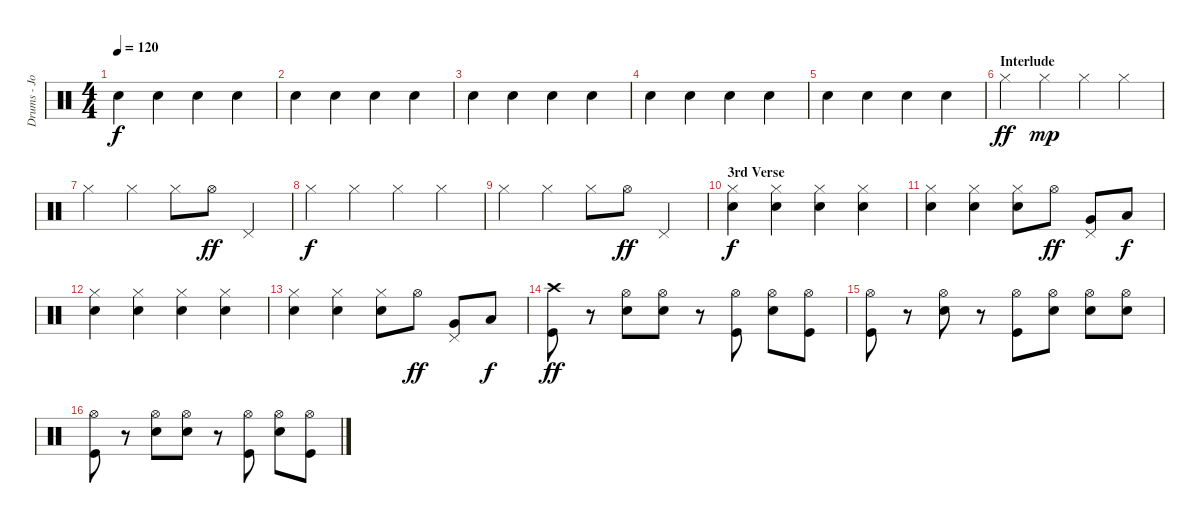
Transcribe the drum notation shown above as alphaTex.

\track ("Drums - Josh Klinghoffer" "Drums - Jo") {instrument percussion}
\staff {score}
\articulation defaults
\ts (4 4)
\tempo 120
\clef neutral
\ks c "Snare (hit) 2".4{dy f} "Snare (hit) 2".4 "Snare (hit) 2".4 "Snare (hit) 2".4
|
"Snare (hit) 2".4 "Snare (hit) 2".4 "Snare (hit) 2".4 "Snare (hit) 2".4 |
"Snare (hit) 2".4 "Snare (hit) 2".4 "Snare (hit) 2".4 "Snare (hit) 2".4 |
"Snare (hit) 2".4 "Snare (hit) 2".4 "Snare (hit) 2".4 "Snare (hit) 2".4 |
"Snare (hit) 2".4 "Snare (hit) 2".4 "Snare (hit) 2".4 "Snare (hit) 2".4 |
\section ("" "Interlude")
"Hi-Hat (closed)".4{dy ff} "Hi-Hat (closed)".4{dy mp} "Hi-Hat (closed)".4 "Hi-Hat (closed)".4 |
"Hi-Hat (closed)".4 "Hi-Hat (closed)".4 "Hi-Hat (closed)".8 "Hi-Hat (open)".8{dy ff} "Pedal Hi-Hat (hit)".4 |
"Hi-Hat (closed)".4{dy f} "Hi-Hat (closed)".4 "Hi-Hat (closed)".4 "Hi-Hat (closed)".4 |
"Hi-Hat (closed)".4 "Hi-Hat (closed)".4 "Hi-Hat (closed)".8 "Hi-Hat (open)".8{dy ff} "Pedal Hi-Hat (hit)".4 |
\section ("" "3rd Verse")
("Hi-Hat (closed)" "Snare (hit) 2").4{dy f} ("Hi-Hat (closed)" "Snare (hit) 2").4 ("Hi-Hat (closed)" "Snare (hit) 2").4 ("Hi-Hat (closed)" "Snare (hit) 2").4 |
("Hi-Hat (closed)" "Snare (hit) 2").4 ("Hi-Hat (closed)" "Snare (hit) 2").4 ("Hi-Hat (closed)" "Snare (hit) 2").8 "Hi-Hat (open)".8{dy ff} ("Pedal Hi-Hat (hit)" "Very Low Tom (hit)").8 "Low Floor Tom (hit)".8{dy f} |
("Hi-Hat (closed)" "Snare (hit) 2").4 ("Hi-Hat (closed)" "Snare (hit) 2").4 ("Hi-Hat (closed)" "Snare (hit) 2").4 ("Hi-Hat (closed)" "Snare (hit) 2").4 |
("Hi-Hat (closed)" "Snare (hit) 2").4 ("Hi-Hat (closed)" "Snare (hit) 2").4 ("Hi-Hat (closed)" "Snare (hit) 2").8 "Hi-Hat (open)".8{dy ff} ("Pedal Hi-Hat (hit)" "Very Low Tom (hit)").8 "Low Floor Tom (hit)".8{dy f} |
("Crash high (hit)" "Kick (hit)").8{dy ff} r.8 ("Hi-Hat (open)" "Snare (hit) 2").8 ("Hi-Hat (open)" "Snare (hit) 2").8 r.8 ("Hi-Hat (open)" "Kick (hit)").8 ("Hi-Hat (open)" "Snare (hit) 2").8 ("Hi-Hat (open)" "Kick (hit)").8 |
("Hi-Hat (open)" "Kick (hit)").8 r.8 ("Hi-Hat (open)" "Snare (hit) 2").8 r.8 ("Hi-Hat (open)" "Kick (hit)").8 ("Hi-Hat (open)" "Snare (hit) 2").8 ("Hi-Hat (open)" "Snare (hit) 2").8 ("Hi-Hat (open)" "Snare (hit) 2").8 |
("Hi-Hat (open)" "Kick (hit)").8 r.8 ("Hi-Hat (open)" "Snare (hit) 2").8 ("Hi-Hat (open)" "Snare (hit) 2").8 r.8 ("Hi-Hat (open)" "Kick (hit)").8 ("Hi-Hat (open)" "Snare (hit) 2").8 ("Hi-Hat (open)" "Kick (hit)").8
